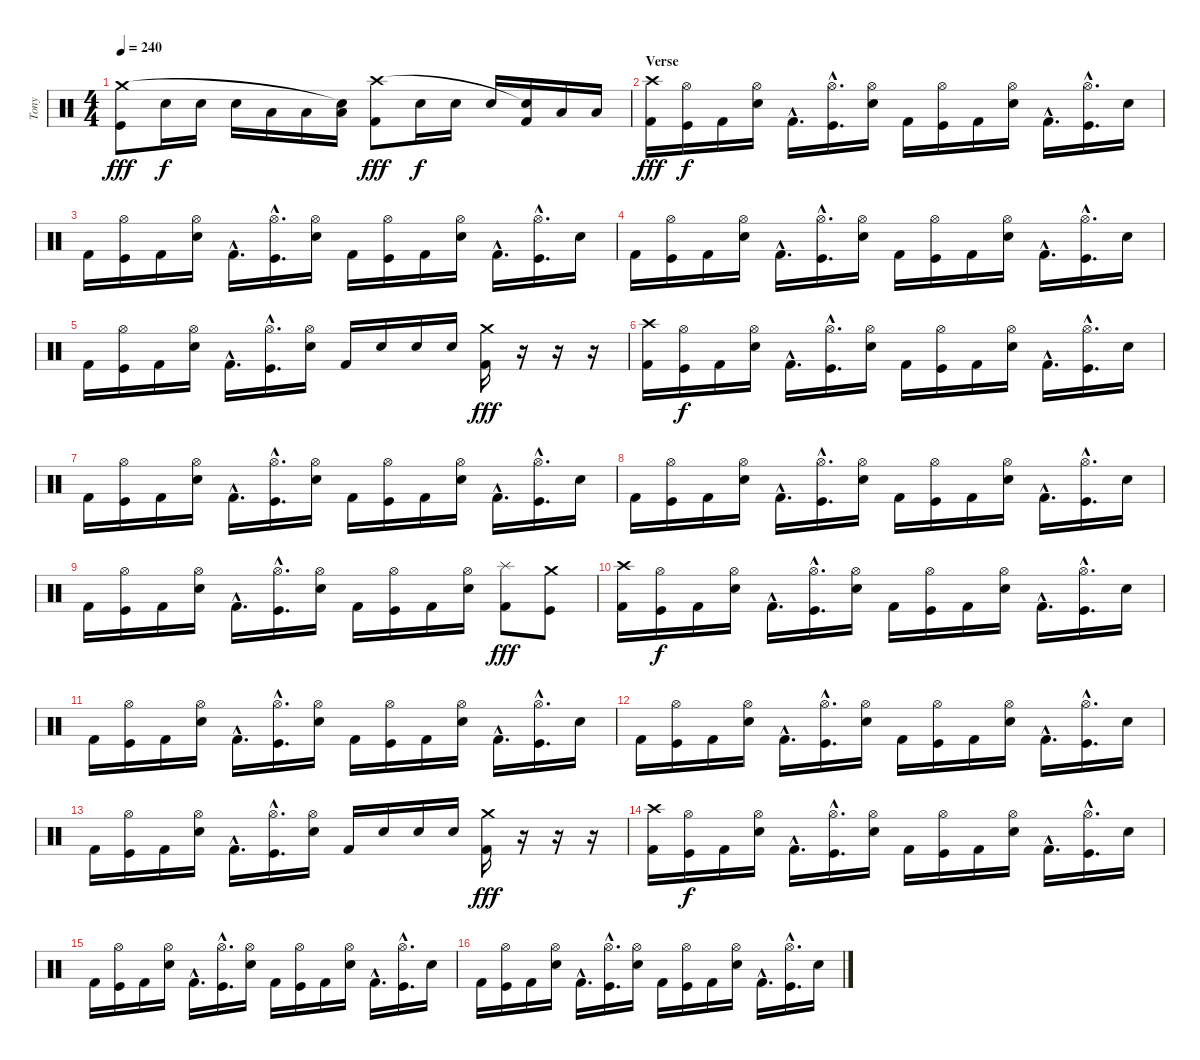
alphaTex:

\track ("Tony" "Tony") {instrument percussion}
\staff {score}
\articulation defaults
\ts (4 4)
\tempo 240
\clef neutral
\ks c
("Kick (hit)" "Crash medium (hit)").8{dy fff} "Snare (hit) 2".16{dy f} "Snare (hit) 2".16 "Snare (hit) 2".16 "Low Tom (hit)".16 "Low Tom (hit)".16 ("Low Tom (hit)" "Snare (hit)"{t}).16 ("Kick (hit) 2" "Crash high (hit)").8{dy fff} "Snare (hit) 2".16{dy f} "Snare (hit) 2".16 "Snare (hit) 2".16 ("Kick (hit) 2" "Snare (hit)"{t}).16 "Low Tom (hit)".16 "Low Tom (hit)".16 |
\section ("" "Verse")
("Kick (hit) 2" "Crash high (hit)").16{dy fff} ("Kick (hit)" "Hi-Hat (open)").16{dy f} "Kick (hit) 2".16 ("Snare (hit) 2" "Hi-Hat (open)").16 "Kick (hit) 2"{hac}.16{d} ("Kick (hit)"{hac} "Hi-Hat (open)"{hac}).16{d} ("Snare (hit) 2" "Hi-Hat (open)").16 "Kick (hit) 2".16 ("Kick (hit)" "Hi-Hat (open)").16 "Kick (hit) 2".16 ("Snare (hit) 2" "Hi-Hat (open)").16 "Kick (hit) 2"{hac}.16{d} ("Kick (hit)"{hac} "Hi-Hat (open)"{hac}).16{d} "Snare (hit) 2".16 |
"Kick (hit) 2".16 ("Kick (hit)" "Hi-Hat (open)").16 "Kick (hit) 2".16 ("Snare (hit) 2" "Hi-Hat (open)").16 "Kick (hit) 2"{hac}.16{d} ("Kick (hit)"{hac} "Hi-Hat (open)"{hac}).16{d} ("Snare (hit) 2" "Hi-Hat (open)").16 "Kick (hit) 2".16 ("Kick (hit)" "Hi-Hat (open)").16 "Kick (hit) 2".16 ("Snare (hit) 2" "Hi-Hat (open)").16 "Kick (hit) 2"{hac}.16{d} ("Kick (hit)"{hac} "Hi-Hat (open)"{hac}).16{d} "Snare (hit) 2".16 |
"Kick (hit) 2".16 ("Kick (hit)" "Hi-Hat (open)").16 "Kick (hit) 2".16 ("Snare (hit) 2" "Hi-Hat (open)").16 "Kick (hit) 2"{hac}.16{d} ("Kick (hit)"{hac} "Hi-Hat (open)"{hac}).16{d} ("Snare (hit) 2" "Hi-Hat (open)").16 "Kick (hit) 2".16 ("Kick (hit)" "Hi-Hat (open)").16 "Kick (hit) 2".16 ("Snare (hit) 2" "Hi-Hat (open)").16 "Kick (hit) 2"{hac}.16{d} ("Kick (hit)"{hac} "Hi-Hat (open)"{hac}).16{d} "Snare (hit) 2".16 |
"Kick (hit) 2".16 ("Kick (hit)" "Hi-Hat (open)").16 "Kick (hit) 2".16 ("Snare (hit) 2" "Hi-Hat (open)").16 "Kick (hit) 2"{hac}.16{d} ("Kick (hit)"{hac} "Hi-Hat (open)"{hac}).16{d} ("Snare (hit) 2" "Hi-Hat (open)").16 "Kick (hit) 2".16 "Snare (hit) 2".16 "Snare (hit) 2".16 "Snare (hit) 2".16 ("Kick (hit) 2" "Crash medium (hit)").16{dy fff} r.16 r.16 r.16 |
("Kick (hit) 2" "Crash high (hit)").16 ("Kick (hit)" "Hi-Hat (open)").16{dy f} "Kick (hit) 2".16 ("Snare (hit) 2" "Hi-Hat (open)").16 "Kick (hit) 2"{hac}.16{d} ("Kick (hit)"{hac} "Hi-Hat (open)"{hac}).16{d} ("Snare (hit) 2" "Hi-Hat (open)").16 "Kick (hit) 2".16 ("Kick (hit)" "Hi-Hat (open)").16 "Kick (hit) 2".16 ("Snare (hit) 2" "Hi-Hat (open)").16 "Kick (hit) 2"{hac}.16{d} ("Kick (hit)"{hac} "Hi-Hat (open)"{hac}).16{d} "Snare (hit) 2".16 |
"Kick (hit) 2".16 ("Kick (hit)" "Hi-Hat (open)").16 "Kick (hit) 2".16 ("Snare (hit) 2" "Hi-Hat (open)").16 "Kick (hit) 2"{hac}.16{d} ("Kick (hit)"{hac} "Hi-Hat (open)"{hac}).16{d} ("Snare (hit) 2" "Hi-Hat (open)").16 "Kick (hit) 2".16 ("Kick (hit)" "Hi-Hat (open)").16 "Kick (hit) 2".16 ("Snare (hit) 2" "Hi-Hat (open)").16 "Kick (hit) 2"{hac}.16{d} ("Kick (hit)"{hac} "Hi-Hat (open)"{hac}).16{d} "Snare (hit) 2".16 |
"Kick (hit) 2".16 ("Kick (hit)" "Hi-Hat (open)").16 "Kick (hit) 2".16 ("Snare (hit) 2" "Hi-Hat (open)").16 "Kick (hit) 2"{hac}.16{d} ("Kick (hit)"{hac} "Hi-Hat (open)"{hac}).16{d} ("Snare (hit) 2" "Hi-Hat (open)").16 "Kick (hit) 2".16 ("Kick (hit)" "Hi-Hat (open)").16 "Kick (hit) 2".16 ("Snare (hit) 2" "Hi-Hat (open)").16 "Kick (hit) 2"{hac}.16{d} ("Kick (hit)"{hac} "Hi-Hat (open)"{hac}).16{d} "Snare (hit) 2".16 |
"Kick (hit) 2".16 ("Kick (hit)" "Hi-Hat (open)").16 "Kick (hit) 2".16 ("Snare (hit) 2" "Hi-Hat (open)").16 "Kick (hit) 2"{hac}.16{d} ("Kick (hit)"{hac} "Hi-Hat (open)"{hac}).16{d} ("Snare (hit) 2" "Hi-Hat (open)").16 "Kick (hit) 2".16 ("Kick (hit)" "Hi-Hat (open)").16 "Kick (hit) 2".16 ("Snare (hit) 2" "Hi-Hat (open)").16 ("Kick (hit) 2" "Splash (hit)").8{dy fff} ("Kick (hit)" "Crash medium (hit)").8 |
("Kick (hit) 2" "Crash high (hit)").16 ("Kick (hit)" "Hi-Hat (open)").16{dy f} "Kick (hit) 2".16 ("Snare (hit) 2" "Hi-Hat (open)").16 "Kick (hit) 2"{hac}.16{d} ("Kick (hit)"{hac} "Hi-Hat (open)"{hac}).16{d} ("Snare (hit) 2" "Hi-Hat (open)").16 "Kick (hit) 2".16 ("Kick (hit)" "Hi-Hat (open)").16 "Kick (hit) 2".16 ("Snare (hit) 2" "Hi-Hat (open)").16 "Kick (hit) 2"{hac}.16{d} ("Kick (hit)"{hac} "Hi-Hat (open)"{hac}).16{d} "Snare (hit) 2".16 |
"Kick (hit) 2".16 ("Kick (hit)" "Hi-Hat (open)").16 "Kick (hit) 2".16 ("Snare (hit) 2" "Hi-Hat (open)").16 "Kick (hit) 2"{hac}.16{d} ("Kick (hit)"{hac} "Hi-Hat (open)"{hac}).16{d} ("Snare (hit) 2" "Hi-Hat (open)").16 "Kick (hit) 2".16 ("Kick (hit)" "Hi-Hat (open)").16 "Kick (hit) 2".16 ("Snare (hit) 2" "Hi-Hat (open)").16 "Kick (hit) 2"{hac}.16{d} ("Kick (hit)"{hac} "Hi-Hat (open)"{hac}).16{d} "Snare (hit) 2".16 |
"Kick (hit) 2".16 ("Kick (hit)" "Hi-Hat (open)").16 "Kick (hit) 2".16 ("Snare (hit) 2" "Hi-Hat (open)").16 "Kick (hit) 2"{hac}.16{d} ("Kick (hit)"{hac} "Hi-Hat (open)"{hac}).16{d} ("Snare (hit) 2" "Hi-Hat (open)").16 "Kick (hit) 2".16 ("Kick (hit)" "Hi-Hat (open)").16 "Kick (hit) 2".16 ("Snare (hit) 2" "Hi-Hat (open)").16 "Kick (hit) 2"{hac}.16{d} ("Kick (hit)"{hac} "Hi-Hat (open)"{hac}).16{d} "Snare (hit) 2".16 |
"Kick (hit) 2".16 ("Kick (hit)" "Hi-Hat (open)").16 "Kick (hit) 2".16 ("Snare (hit) 2" "Hi-Hat (open)").16 "Kick (hit) 2"{hac}.16{d} ("Kick (hit)"{hac} "Hi-Hat (open)"{hac}).16{d} ("Snare (hit) 2" "Hi-Hat (open)").16 "Kick (hit) 2".16 "Snare (hit) 2".16 "Snare (hit) 2".16 "Snare (hit) 2".16 ("Kick (hit) 2" "Crash medium (hit)").16{dy fff} r.16 r.16 r.16 |
("Kick (hit) 2" "Crash high (hit)").16 ("Kick (hit)" "Hi-Hat (open)").16{dy f} "Kick (hit) 2".16 ("Snare (hit) 2" "Hi-Hat (open)").16 "Kick (hit) 2"{hac}.16{d} ("Kick (hit)"{hac} "Hi-Hat (open)"{hac}).16{d} ("Snare (hit) 2" "Hi-Hat (open)").16 "Kick (hit) 2".16 ("Kick (hit)" "Hi-Hat (open)").16 "Kick (hit) 2".16 ("Snare (hit) 2" "Hi-Hat (open)").16 "Kick (hit) 2"{hac}.16{d} ("Kick (hit)"{hac} "Hi-Hat (open)"{hac}).16{d} "Snare (hit) 2".16 |
"Kick (hit) 2".16 ("Kick (hit)" "Hi-Hat (open)").16 "Kick (hit) 2".16 ("Snare (hit) 2" "Hi-Hat (open)").16 "Kick (hit) 2"{hac}.16{d} ("Kick (hit)"{hac} "Hi-Hat (open)"{hac}).16{d} ("Snare (hit) 2" "Hi-Hat (open)").16 "Kick (hit) 2".16 ("Kick (hit)" "Hi-Hat (open)").16 "Kick (hit) 2".16 ("Snare (hit) 2" "Hi-Hat (open)").16 "Kick (hit) 2"{hac}.16{d} ("Kick (hit)"{hac} "Hi-Hat (open)"{hac}).16{d} "Snare (hit) 2".16 |
"Kick (hit) 2".16 ("Kick (hit)" "Hi-Hat (open)").16 "Kick (hit) 2".16 ("Snare (hit) 2" "Hi-Hat (open)").16 "Kick (hit) 2"{hac}.16{d} ("Kick (hit)"{hac} "Hi-Hat (open)"{hac}).16{d} ("Snare (hit) 2" "Hi-Hat (open)").16 "Kick (hit) 2".16 ("Kick (hit)" "Hi-Hat (open)").16 "Kick (hit) 2".16 ("Snare (hit) 2" "Hi-Hat (open)").16 "Kick (hit) 2"{hac}.16{d} ("Kick (hit)"{hac} "Hi-Hat (open)"{hac}).16{d} "Snare (hit) 2".16
